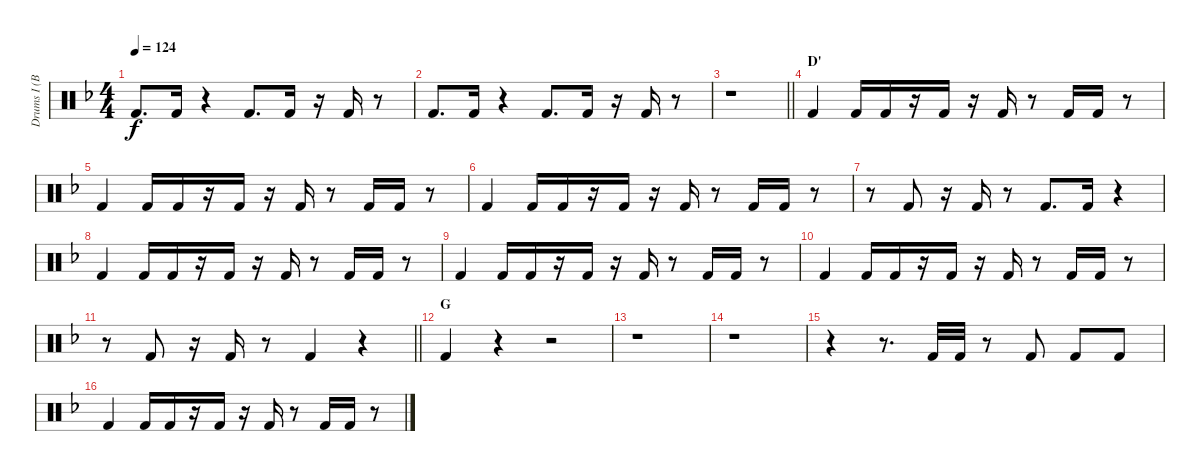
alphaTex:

\track ("Drums I (Bass Drums) (RUKA)" "Drums I (B") {instrument percussion}
\staff {score}
\articulation defaults
\ts (4 4)
\tempo 124
\clef neutral
\ks f "Kick (hit) 2".8{d dy f} "Kick (hit) 2".16
r.4 "Kick (hit) 2".8{d} "Kick (hit) 2".16 r.16 "Kick (hit) 2".16 r.8 |
"Kick (hit) 2".8{d} "Kick (hit) 2".16 r.4 "Kick (hit) 2".8{d} "Kick (hit) 2".16 r.16 "Kick (hit) 2".16 r.8 |
\barLineRight lightlight
r.1 |
\section ("" "D'")
"Kick (hit) 2".4 "Kick (hit) 2".16 "Kick (hit) 2".16 r.16 "Kick (hit) 2".16 r.16 "Kick (hit) 2".16 r.8 "Kick (hit) 2".16 "Kick (hit) 2".16 r.8 |
"Kick (hit) 2".4 "Kick (hit) 2".16 "Kick (hit) 2".16 r.16 "Kick (hit) 2".16 r.16 "Kick (hit) 2".16 r.8 "Kick (hit) 2".16 "Kick (hit) 2".16 r.8 |
"Kick (hit) 2".4 "Kick (hit) 2".16 "Kick (hit) 2".16 r.16 "Kick (hit) 2".16 r.16 "Kick (hit) 2".16 r.8 "Kick (hit) 2".16 "Kick (hit) 2".16 r.8 |
r.8 "Kick (hit) 2".8 r.16 "Kick (hit) 2".16 r.8 "Kick (hit) 2".8{d} "Kick (hit) 2".16 r.4 |
"Kick (hit) 2".4 "Kick (hit) 2".16 "Kick (hit) 2".16 r.16 "Kick (hit) 2".16 r.16 "Kick (hit) 2".16 r.8 "Kick (hit) 2".16 "Kick (hit) 2".16 r.8 |
"Kick (hit) 2".4 "Kick (hit) 2".16 "Kick (hit) 2".16 r.16 "Kick (hit) 2".16 r.16 "Kick (hit) 2".16 r.8 "Kick (hit) 2".16 "Kick (hit) 2".16 r.8 |
"Kick (hit) 2".4 "Kick (hit) 2".16 "Kick (hit) 2".16 r.16 "Kick (hit) 2".16 r.16 "Kick (hit) 2".16 r.8 "Kick (hit) 2".16 "Kick (hit) 2".16 r.8 |
\barLineRight lightlight
r.8 "Kick (hit) 2".8 r.16 "Kick (hit) 2".16 r.8 "Kick (hit) 2".4 r.4 |
\section ("" "G")
"Kick (hit) 2".4 r.4 r.2 |
r.1 |
r.1 |
r.4 r.8{d} "Kick (hit) 2".32 "Kick (hit) 2".32 r.8 "Kick (hit) 2".8 "Kick (hit) 2".8 "Kick (hit) 2".8 |
"Kick (hit) 2".4 "Kick (hit) 2".16 "Kick (hit) 2".16 r.16 "Kick (hit) 2".16 r.16 "Kick (hit) 2".16 r.8 "Kick (hit) 2".16 "Kick (hit) 2".16 r.8
